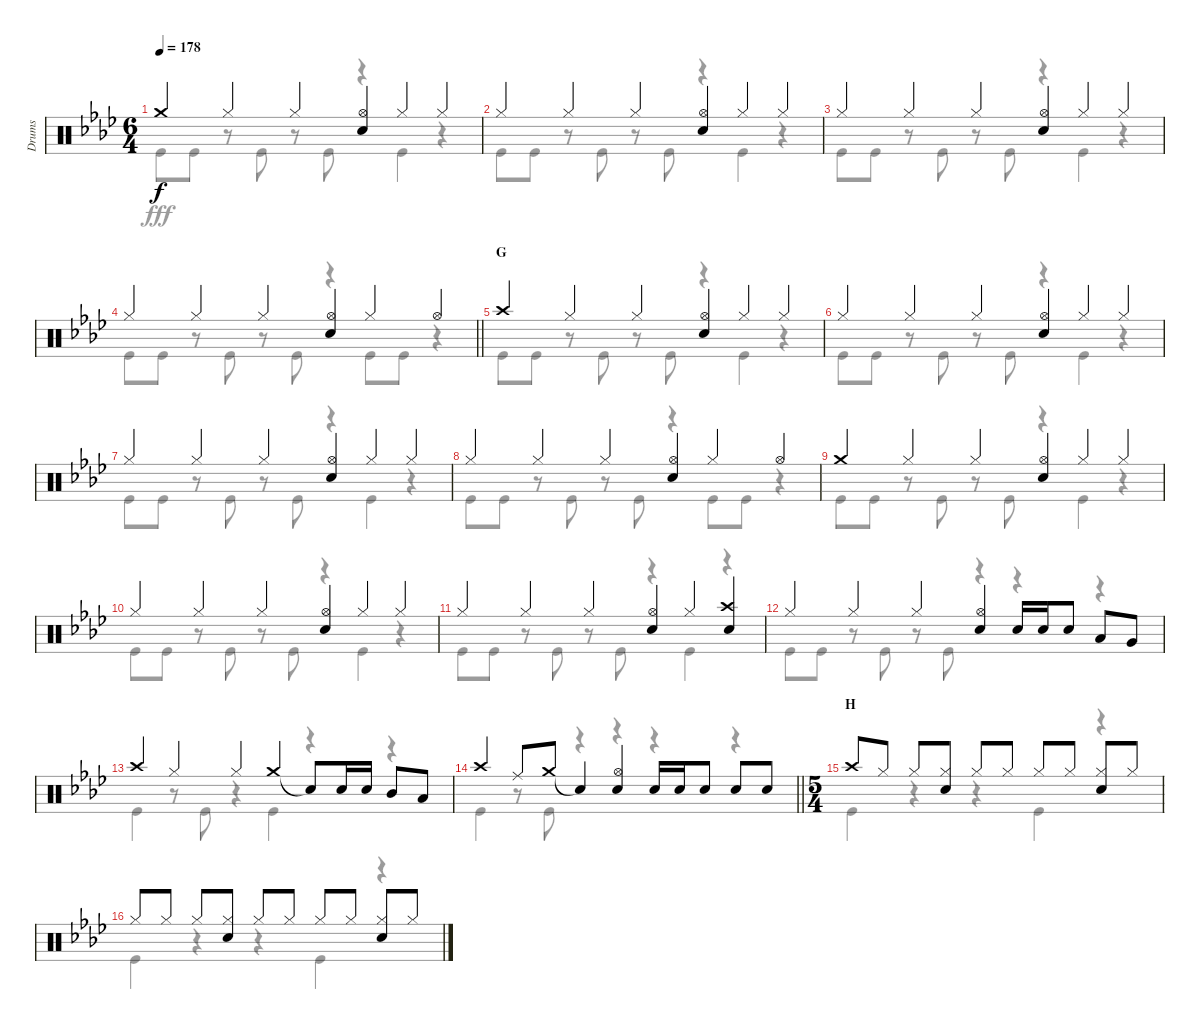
\track ("Drums" "Drums") {instrument percussion}
\staff {score}
\articulation defaults
\voice
\ts (6 4)
\tempo 178
\clef neutral
\ks ab "Crash medium (hit)".4{dy f} "Hi-Hat (closed)".4 "Hi-Hat (closed)".4
("Hi-Hat (open)" "Snare (hit) 2").4 "Hi-Hat (closed)".4 "Hi-Hat (closed)".4 |
"Hi-Hat (closed)".4 "Hi-Hat (closed)".4 "Hi-Hat (closed)".4 ("Hi-Hat (open)" "Snare (hit) 2").4 "Hi-Hat (closed)".4 "Hi-Hat (closed)".4 |
"Hi-Hat (closed)".4 "Hi-Hat (closed)".4 "Hi-Hat (closed)".4 ("Hi-Hat (open)" "Snare (hit) 2").4 "Hi-Hat (closed)".4 "Hi-Hat (closed)".4 |
\barLineRight lightlight "Hi-Hat (closed)".4 "Hi-Hat (closed)".4 "Hi-Hat (closed)".4
("Hi-Hat (open)" "Snare (hit) 2").4 "Hi-Hat (closed)".4 "Hi-Hat (open)".4 |
\section ("" "G")
"Crash high (hit)".4 "Hi-Hat (closed)".4 "Hi-Hat (closed)".4 ("Hi-Hat (open)" "Snare (hit) 2").4 "Hi-Hat (closed)".4 "Hi-Hat (closed)".4 |
"Hi-Hat (closed)".4 "Hi-Hat (closed)".4 "Hi-Hat (closed)".4 ("Hi-Hat (open)" "Snare (hit) 2").4 "Hi-Hat (closed)".4 "Hi-Hat (closed)".4 |
"Hi-Hat (closed)".4 "Hi-Hat (closed)".4 "Hi-Hat (closed)".4 ("Hi-Hat (open)" "Snare (hit) 2").4 "Hi-Hat (closed)".4 "Hi-Hat (closed)".4 |
"Hi-Hat (closed)".4 "Hi-Hat (closed)".4 "Hi-Hat (closed)".4 ("Hi-Hat (open)" "Snare (hit) 2").4 "Hi-Hat (closed)".4 "Hi-Hat (open)".4 |
"Crash medium (hit)".4 "Hi-Hat (closed)".4 "Hi-Hat (closed)".4 ("Hi-Hat (open)" "Snare (hit) 2").4 "Hi-Hat (closed)".4 "Hi-Hat (closed)".4 |
"Hi-Hat (closed)".4 "Hi-Hat (closed)".4 "Hi-Hat (closed)".4 ("Hi-Hat (open)" "Snare (hit) 2").4 "Hi-Hat (closed)".4 "Hi-Hat (closed)".4 |
"Hi-Hat (closed)".4 "Hi-Hat (closed)".4 "Hi-Hat (closed)".4 ("Hi-Hat (open)" "Snare (hit) 2").4 "Hi-Hat (closed)".4 ("Crash high (hit)" "Snare (hit) 2").4 |
"Hi-Hat (closed)".4 "Hi-Hat (closed)".4 "Hi-Hat (closed)".4 ("Hi-Hat (open)" "Snare (hit) 2").4 "Snare (hit) 2".16 "Snare (hit) 2".16 "Snare (hit) 2".8 "Low Tom (hit)".8 "Very Low Tom (hit)".8 |
"Crash high (hit)".4 "Hi-Hat (closed)".4 "Hi-Hat (closed)".4 "Crash medium (hit)".4 "Snare (hit)"{t}.8 "Snare (hit) 2".16 "Snare (hit) 2".16 "Mid Tom (hit)".8 "Low Tom (hit)".8 |
\barLineRight lightlight "Crash high (hit)".4 "Ride (middle)".8 "Crash medium (hit)".8 "Snare (hit)"{t}.4
("Hi-Hat (open)" "Snare (hit) 2").4 "Snare (hit) 2".16 "Snare (hit) 2".16 "Snare (hit) 2".8 "Snare (hit) 2".8 "Snare (hit) 2".8 |
\ts (5 4)
\section ("" "H")
"Crash high (hit)".8 "Hi-Hat (closed)".8 "Hi-Hat (closed)".8 ("Hi-Hat (closed)" "Snare (hit) 2").8 "Hi-Hat (closed)".8 "Hi-Hat (closed)".8 "Hi-Hat (closed)".8 "Hi-Hat (closed)".8 ("Hi-Hat (closed)" "Snare (hit) 2").8 "Hi-Hat (closed)".8 |
"Hi-Hat (closed)".8 "Hi-Hat (closed)".8 "Hi-Hat (closed)".8 ("Hi-Hat (closed)" "Snare (hit) 2").8 "Hi-Hat (closed)".8 "Hi-Hat (closed)".8 "Hi-Hat (closed)".8 "Hi-Hat (closed)".8 ("Hi-Hat (closed)" "Snare (hit) 2").8 "Hi-Hat (closed)".8
\voice
\clef neutral
\ottava regular
\simile none
\ks ab "Kick (hit)".8{dy fff} "Kick (hit)".8
r.8 "Kick (hit)".8 r.8 "Kick (hit)".8 r.4 "Kick (hit)".4 r.4 |
"Kick (hit)".8 "Kick (hit)".8 r.8 "Kick (hit)".8 r.8 "Kick (hit)".8 r.4 "Kick (hit)".4 r.4 |
"Kick (hit)".8 "Kick (hit)".8 r.8 "Kick (hit)".8 r.8 "Kick (hit)".8 r.4 "Kick (hit)".4 r.4 |
\barLineRight lightlight "Kick (hit)".8 "Kick (hit)".8
r.8 "Kick (hit)".8 r.8 "Kick (hit)".8 r.4 "Kick (hit)".8 "Kick (hit)".8 r.4 |
"Kick (hit)".8 "Kick (hit)".8 r.8 "Kick (hit)".8 r.8 "Kick (hit)".8 r.4 "Kick (hit)".4 r.4 |
"Kick (hit)".8 "Kick (hit)".8 r.8 "Kick (hit)".8 r.8 "Kick (hit)".8 r.4 "Kick (hit)".4 r.4 |
"Kick (hit)".8 "Kick (hit)".8 r.8 "Kick (hit)".8 r.8 "Kick (hit)".8 r.4 "Kick (hit)".4 r.4 |
"Kick (hit)".8 "Kick (hit)".8 r.8 "Kick (hit)".8 r.8 "Kick (hit)".8 r.4 "Kick (hit)".8 "Kick (hit)".8 r.4 |
"Kick (hit)".8 "Kick (hit)".8 r.8 "Kick (hit)".8 r.8 "Kick (hit)".8 r.4 "Kick (hit)".4 r.4 |
"Kick (hit)".8 "Kick (hit)".8 r.8 "Kick (hit)".8 r.8 "Kick (hit)".8 r.4 "Kick (hit)".4 r.4 |
"Kick (hit)".8 "Kick (hit)".8 r.8 "Kick (hit)".8 r.8 "Kick (hit)".8 r.4 "Kick (hit)".4 r.4 |
"Kick (hit)".8 "Kick (hit)".8 r.8 "Kick (hit)".8 r.8 "Kick (hit)".8 r.4 r.4 r.4 |
"Kick (hit)".4 r.8 "Kick (hit)".8 r.4 "Kick (hit)".4 r.4 r.4 |
\barLineRight lightlight "Kick (hit)".4
r.8 "Kick (hit)".8 r.4 r.4 r.4 r.4 |
"Kick (hit)".4 r.4 r.4 "Kick (hit)".4 r.4 |
"Kick (hit)".4 r.4 r.4 "Kick (hit)".4 r.4
